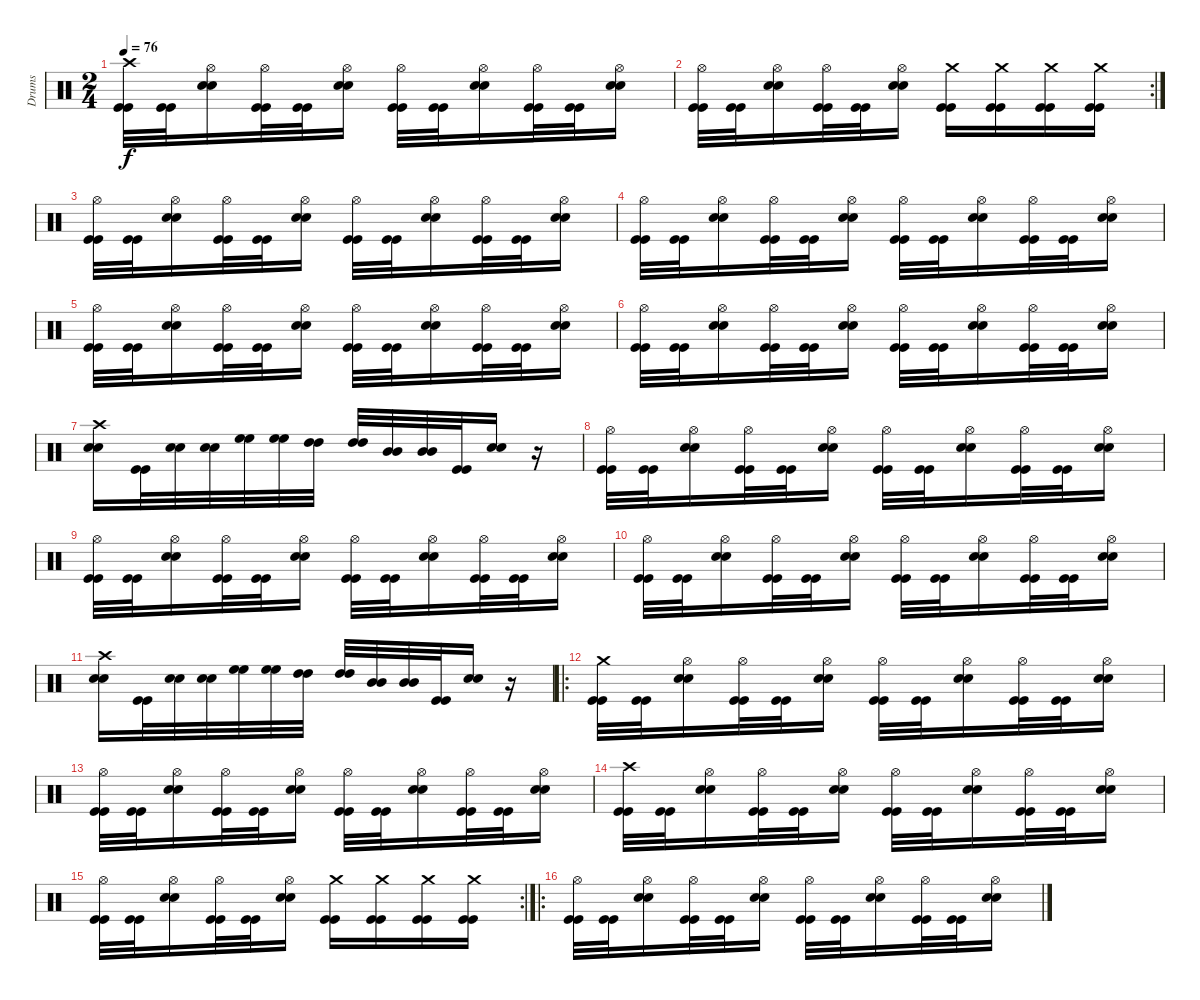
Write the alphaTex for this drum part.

\track ("Drums" "Drums") {instrument percussion}
\staff {score}
\articulation defaults
\ts (2 4)
\tempo 76
\clef neutral
\ks c
("Crash high (hit)" "Kick (hit)" "Kick (hit)").32{dy f} ("Kick (hit)" "Kick (hit)").32 ("Hi-Hat (open)" "Snare (hit) 2" "Snare (hit) 2").16 ("Hi-Hat (open)" "Kick (hit)" "Kick (hit)").32 ("Kick (hit)" "Kick (hit)").32 ("Hi-Hat (open)" "Snare (hit) 2" "Snare (hit) 2").16 ("Hi-Hat (open)" "Kick (hit)" "Kick (hit)").32 ("Kick (hit)" "Kick (hit)").32 ("Hi-Hat (open)" "Snare (hit) 2" "Snare (hit) 2").16 ("Hi-Hat (open)" "Kick (hit)" "Kick (hit)").32 ("Kick (hit)" "Kick (hit)").32 ("Hi-Hat (open)" "Snare (hit) 2" "Snare (hit) 2").16 |
\rc 2
("Hi-Hat (open)" "Kick (hit)" "Kick (hit)").32 ("Kick (hit)" "Kick (hit)").32 ("Hi-Hat (open)" "Snare (hit) 2" "Snare (hit) 2").16 ("Hi-Hat (open)" "Kick (hit)" "Kick (hit)").32 ("Kick (hit)" "Kick (hit)").32 ("Hi-Hat (open)" "Snare (hit) 2" "Snare (hit) 2").16 ("Crash medium (hit)" "Kick (hit)" "Kick (hit)").16 ("Crash medium (hit)" "Kick (hit)" "Kick (hit)").16 ("Crash medium (hit)" "Kick (hit)" "Kick (hit)").16 ("Crash medium (hit)" "Kick (hit)" "Kick (hit)").16 |
("Hi-Hat (open)" "Kick (hit)" "Kick (hit)").32 ("Kick (hit)" "Kick (hit)").32 ("Hi-Hat (open)" "Snare (hit) 2" "Snare (hit) 2").16 ("Hi-Hat (open)" "Kick (hit)" "Kick (hit)").32 ("Kick (hit)" "Kick (hit)").32 ("Hi-Hat (open)" "Snare (hit) 2" "Snare (hit) 2").16 ("Hi-Hat (open)" "Kick (hit)" "Kick (hit)").32 ("Kick (hit)" "Kick (hit)").32 ("Hi-Hat (open)" "Snare (hit) 2" "Snare (hit) 2").16 ("Hi-Hat (open)" "Kick (hit)" "Kick (hit)").32 ("Kick (hit)" "Kick (hit)").32 ("Hi-Hat (open)" "Snare (hit) 2" "Snare (hit) 2").16 |
("Hi-Hat (open)" "Kick (hit)" "Kick (hit)").32 ("Kick (hit)" "Kick (hit)").32 ("Hi-Hat (open)" "Snare (hit) 2" "Snare (hit) 2").16 ("Hi-Hat (open)" "Kick (hit)" "Kick (hit)").32 ("Kick (hit)" "Kick (hit)").32 ("Hi-Hat (open)" "Snare (hit) 2" "Snare (hit) 2").16 ("Hi-Hat (open)" "Kick (hit)" "Kick (hit)").32 ("Kick (hit)" "Kick (hit)").32 ("Hi-Hat (open)" "Snare (hit) 2" "Snare (hit) 2").16 ("Hi-Hat (open)" "Kick (hit)" "Kick (hit)").32 ("Kick (hit)" "Kick (hit)").32 ("Hi-Hat (open)" "Snare (hit) 2" "Snare (hit) 2").16 |
("Hi-Hat (open)" "Kick (hit)" "Kick (hit)").32 ("Kick (hit)" "Kick (hit)").32 ("Hi-Hat (open)" "Snare (hit) 2" "Snare (hit) 2").16 ("Hi-Hat (open)" "Kick (hit)" "Kick (hit)").32 ("Kick (hit)" "Kick (hit)").32 ("Hi-Hat (open)" "Snare (hit) 2" "Snare (hit) 2").16 ("Hi-Hat (open)" "Kick (hit)" "Kick (hit)").32 ("Kick (hit)" "Kick (hit)").32 ("Hi-Hat (open)" "Snare (hit) 2" "Snare (hit) 2").16 ("Hi-Hat (open)" "Kick (hit)" "Kick (hit)").32 ("Kick (hit)" "Kick (hit)").32 ("Hi-Hat (open)" "Snare (hit) 2" "Snare (hit) 2").16 |
("Hi-Hat (open)" "Kick (hit)" "Kick (hit)").32 ("Kick (hit)" "Kick (hit)").32 ("Hi-Hat (open)" "Snare (hit) 2" "Snare (hit) 2").16 ("Hi-Hat (open)" "Kick (hit)" "Kick (hit)").32 ("Kick (hit)" "Kick (hit)").32 ("Hi-Hat (open)" "Snare (hit) 2" "Snare (hit) 2").16 ("Hi-Hat (open)" "Kick (hit)" "Kick (hit)").32 ("Kick (hit)" "Kick (hit)").32 ("Hi-Hat (open)" "Snare (hit) 2" "Snare (hit) 2").16 ("Hi-Hat (open)" "Kick (hit)" "Kick (hit)").32 ("Kick (hit)" "Kick (hit)").32 ("Hi-Hat (open)" "Snare (hit) 2" "Snare (hit) 2").16 |
("Crash high (hit)" "Snare (hit) 2" "Snare (hit) 2").16 ("Kick (hit)" "Kick (hit)").32 ("Snare (hit) 2" "Snare (hit) 2").32 ("Snare (hit) 2" "Snare (hit) 2").32 ("High Floor Tom (hit)" "High Floor Tom (hit)").32 ("High Floor Tom (hit)" "High Floor Tom (hit)").32 ("High Tom (hit)" "High Tom (hit)").32 ("High Tom (hit)" "High Tom (hit)").32 ("Mid Tom (hit)" "Mid Tom (hit)").32 ("Mid Tom (hit)" "Mid Tom (hit)").32 ("Kick (hit)" "Kick (hit)").32 ("Snare (hit) 2" "Snare (hit) 2").16 r.16 |
("Hi-Hat (open)" "Kick (hit)" "Kick (hit)").32 ("Kick (hit)" "Kick (hit)").32 ("Hi-Hat (open)" "Snare (hit) 2" "Snare (hit) 2").16 ("Hi-Hat (open)" "Kick (hit)" "Kick (hit)").32 ("Kick (hit)" "Kick (hit)").32 ("Hi-Hat (open)" "Snare (hit) 2" "Snare (hit) 2").16 ("Hi-Hat (open)" "Kick (hit)" "Kick (hit)").32 ("Kick (hit)" "Kick (hit)").32 ("Hi-Hat (open)" "Snare (hit) 2" "Snare (hit) 2").16 ("Hi-Hat (open)" "Kick (hit)" "Kick (hit)").32 ("Kick (hit)" "Kick (hit)").32 ("Hi-Hat (open)" "Snare (hit) 2" "Snare (hit) 2").16 |
("Hi-Hat (open)" "Kick (hit)" "Kick (hit)").32 ("Kick (hit)" "Kick (hit)").32 ("Hi-Hat (open)" "Snare (hit) 2" "Snare (hit) 2").16 ("Hi-Hat (open)" "Kick (hit)" "Kick (hit)").32 ("Kick (hit)" "Kick (hit)").32 ("Hi-Hat (open)" "Snare (hit) 2" "Snare (hit) 2").16 ("Hi-Hat (open)" "Kick (hit)" "Kick (hit)").32 ("Kick (hit)" "Kick (hit)").32 ("Hi-Hat (open)" "Snare (hit) 2" "Snare (hit) 2").16 ("Hi-Hat (open)" "Kick (hit)" "Kick (hit)").32 ("Kick (hit)" "Kick (hit)").32 ("Hi-Hat (open)" "Snare (hit) 2" "Snare (hit) 2").16 |
("Hi-Hat (open)" "Kick (hit)" "Kick (hit)").32 ("Kick (hit)" "Kick (hit)").32 ("Hi-Hat (open)" "Snare (hit) 2" "Snare (hit) 2").16 ("Hi-Hat (open)" "Kick (hit)" "Kick (hit)").32 ("Kick (hit)" "Kick (hit)").32 ("Hi-Hat (open)" "Snare (hit) 2" "Snare (hit) 2").16 ("Hi-Hat (open)" "Kick (hit)" "Kick (hit)").32 ("Kick (hit)" "Kick (hit)").32 ("Hi-Hat (open)" "Snare (hit) 2" "Snare (hit) 2").16 ("Hi-Hat (open)" "Kick (hit)" "Kick (hit)").32 ("Kick (hit)" "Kick (hit)").32 ("Hi-Hat (open)" "Snare (hit) 2" "Snare (hit) 2").16 |
("Crash high (hit)" "Snare (hit) 2" "Snare (hit) 2").16 ("Kick (hit)" "Kick (hit)").32 ("Snare (hit) 2" "Snare (hit) 2").32 ("Snare (hit) 2" "Snare (hit) 2").32 ("High Floor Tom (hit)" "High Floor Tom (hit)").32 ("High Floor Tom (hit)" "High Floor Tom (hit)").32 ("High Tom (hit)" "High Tom (hit)").32 ("High Tom (hit)" "High Tom (hit)").32 ("Mid Tom (hit)" "Mid Tom (hit)").32 ("Mid Tom (hit)" "Mid Tom (hit)").32 ("Kick (hit)" "Kick (hit)").32 ("Snare (hit) 2" "Snare (hit) 2").16 r.16 |
\ro
("Crash medium (hit)" "Kick (hit)" "Kick (hit)").32 ("Kick (hit)" "Kick (hit)").32 ("Hi-Hat (open)" "Snare (hit) 2" "Snare (hit) 2").16 ("Hi-Hat (open)" "Kick (hit)" "Kick (hit)").32 ("Kick (hit)" "Kick (hit)").32 ("Hi-Hat (open)" "Snare (hit) 2" "Snare (hit) 2").16 ("Hi-Hat (open)" "Kick (hit)" "Kick (hit)").32 ("Kick (hit)" "Kick (hit)").32 ("Hi-Hat (open)" "Snare (hit) 2" "Snare (hit) 2").16 ("Hi-Hat (open)" "Kick (hit)" "Kick (hit)").32 ("Kick (hit)" "Kick (hit)").32 ("Hi-Hat (open)" "Snare (hit) 2" "Snare (hit) 2").16 |
("Hi-Hat (open)" "Kick (hit)" "Kick (hit)").32 ("Kick (hit)" "Kick (hit)").32 ("Hi-Hat (open)" "Snare (hit) 2" "Snare (hit) 2").16 ("Hi-Hat (open)" "Kick (hit)" "Kick (hit)").32 ("Kick (hit)" "Kick (hit)").32 ("Hi-Hat (open)" "Snare (hit) 2" "Snare (hit) 2").16 ("Hi-Hat (open)" "Kick (hit)" "Kick (hit)").32 ("Kick (hit)" "Kick (hit)").32 ("Hi-Hat (open)" "Snare (hit) 2" "Snare (hit) 2").16 ("Hi-Hat (open)" "Kick (hit)" "Kick (hit)").32 ("Kick (hit)" "Kick (hit)").32 ("Hi-Hat (open)" "Snare (hit) 2" "Snare (hit) 2").16 |
("Crash high (hit)" "Kick (hit)" "Kick (hit)").32 ("Kick (hit)" "Kick (hit)").32 ("Hi-Hat (open)" "Snare (hit) 2" "Snare (hit) 2").16 ("Hi-Hat (open)" "Kick (hit)" "Kick (hit)").32 ("Kick (hit)" "Kick (hit)").32 ("Hi-Hat (open)" "Snare (hit) 2" "Snare (hit) 2").16 ("Hi-Hat (open)" "Kick (hit)" "Kick (hit)").32 ("Kick (hit)" "Kick (hit)").32 ("Hi-Hat (open)" "Snare (hit) 2" "Snare (hit) 2").16 ("Hi-Hat (open)" "Kick (hit)" "Kick (hit)").32 ("Kick (hit)" "Kick (hit)").32 ("Hi-Hat (open)" "Snare (hit) 2" "Snare (hit) 2").16 |
\rc 2
("Hi-Hat (open)" "Kick (hit)" "Kick (hit)").32 ("Kick (hit)" "Kick (hit)").32 ("Hi-Hat (open)" "Snare (hit) 2" "Snare (hit) 2").16 ("Hi-Hat (open)" "Kick (hit)" "Kick (hit)").32 ("Kick (hit)" "Kick (hit)").32 ("Hi-Hat (open)" "Snare (hit) 2" "Snare (hit) 2").16 ("Crash medium (hit)" "Kick (hit)" "Kick (hit)").16 ("Crash medium (hit)" "Kick (hit)" "Kick (hit)").16 ("Crash medium (hit)" "Kick (hit)" "Kick (hit)").16 ("Crash medium (hit)" "Kick (hit)" "Kick (hit)").16 |
\ro
("Hi-Hat (open)" "Kick (hit)" "Kick (hit)").32 ("Kick (hit)" "Kick (hit)").32 ("Hi-Hat (open)" "Snare (hit) 2" "Snare (hit) 2").16 ("Hi-Hat (open)" "Kick (hit)" "Kick (hit)").32 ("Kick (hit)" "Kick (hit)").32 ("Hi-Hat (open)" "Snare (hit) 2" "Snare (hit) 2").16 ("Hi-Hat (open)" "Kick (hit)" "Kick (hit)").32 ("Kick (hit)" "Kick (hit)").32 ("Hi-Hat (open)" "Snare (hit) 2" "Snare (hit) 2").16 ("Hi-Hat (open)" "Kick (hit)" "Kick (hit)").32 ("Kick (hit)" "Kick (hit)").32 ("Hi-Hat (open)" "Snare (hit) 2" "Snare (hit) 2").16
